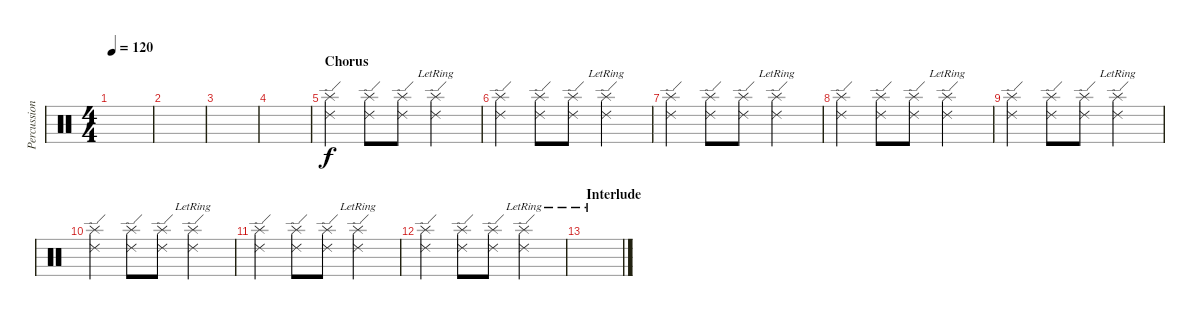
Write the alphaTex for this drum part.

\track ("Percussion" "Percussion") {instrument percussion}
\staff {score}
\articulation defaults
\ts (4 4)
\tempo 120
\clef neutral
\ks c
|
|
|
|
\section ("" "Chorus")
("Splash (hit)" "Ride (edge) 2").4 ("Splash (hit)" "Ride (edge) 2").8 ("Splash (hit)" "Ride (edge) 2").8 ("Splash (hit)"{lr} "Ride (edge) 2"{lr}).2 |
("Splash (hit)" "Ride (edge) 2").4 ("Splash (hit)" "Ride (edge) 2").8 ("Splash (hit)" "Ride (edge) 2").8 ("Splash (hit)"{lr} "Ride (edge) 2"{lr}).2 |
("Splash (hit)" "Ride (edge) 2").4 ("Splash (hit)" "Ride (edge) 2").8 ("Splash (hit)" "Ride (edge) 2").8 ("Splash (hit)"{lr} "Ride (edge) 2"{lr}).2 |
("Splash (hit)" "Ride (edge) 2").4 ("Splash (hit)" "Ride (edge) 2").8 ("Splash (hit)" "Ride (edge) 2").8 ("Splash (hit)"{lr} "Ride (edge) 2"{lr}).2 |
("Splash (hit)" "Ride (edge) 2").4 ("Splash (hit)" "Ride (edge) 2").8 ("Splash (hit)" "Ride (edge) 2").8 ("Splash (hit)"{lr} "Ride (edge) 2"{lr}).2 |
("Splash (hit)" "Ride (edge) 2").4 ("Splash (hit)" "Ride (edge) 2").8 ("Splash (hit)" "Ride (edge) 2").8 ("Splash (hit)"{lr} "Ride (edge) 2"{lr}).2 |
("Splash (hit)" "Ride (edge) 2").4 ("Splash (hit)" "Ride (edge) 2").8 ("Splash (hit)" "Ride (edge) 2").8 ("Splash (hit)"{lr} "Ride (edge) 2"{lr}).2 |
("Splash (hit)" "Ride (edge) 2").4 ("Splash (hit)" "Ride (edge) 2").8 ("Splash (hit)" "Ride (edge) 2").8 ("Splash (hit)"{lr} "Ride (edge) 2"{lr}).2 |
\section ("" "Interlude")
